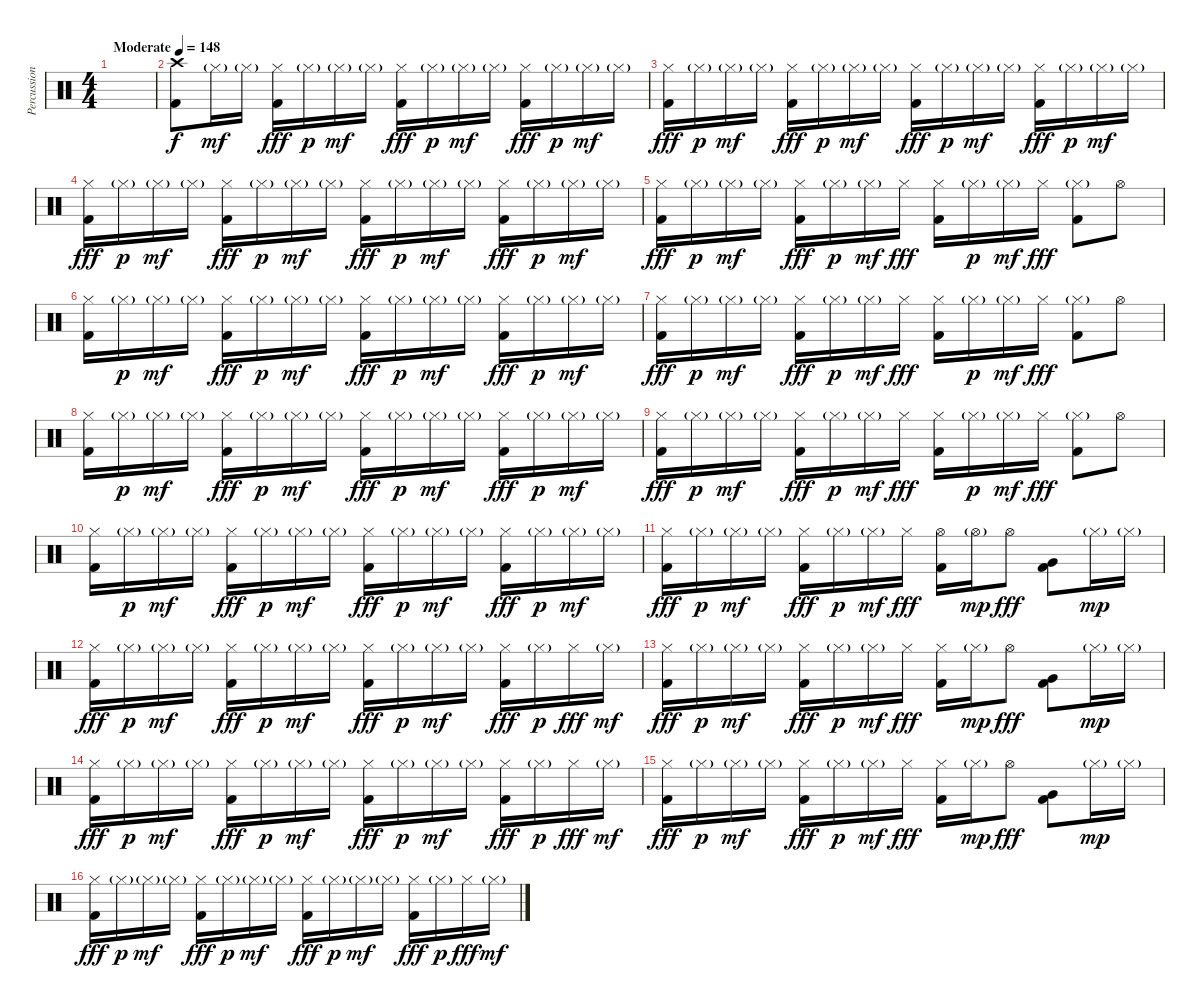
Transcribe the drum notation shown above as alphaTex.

\track ("Percussion" "Percussion") {instrument percussion}
\staff {score}
\articulation defaults
\ts (4 4)
\tempo (148 "Moderate")
\clef neutral
\ks c
|
("Crash high (hit)" "Kick (hit) 2").8 "Hi-Hat (closed)"{g}.16{dy mf} "Hi-Hat (closed)"{g}.16 ("Hi-Hat (closed)" "Kick (hit) 2").16{dy fff} "Hi-Hat (closed)"{g}.16{dy p} "Hi-Hat (closed)"{g}.16{dy mf} "Hi-Hat (closed)"{g}.16 ("Hi-Hat (closed)" "Kick (hit) 2").16{dy fff} "Hi-Hat (closed)"{g}.16{dy p} "Hi-Hat (closed)"{g}.16{dy mf} "Hi-Hat (closed)"{g}.16 ("Hi-Hat (closed)" "Kick (hit) 2").16{dy fff} "Hi-Hat (closed)"{g}.16{dy p} "Hi-Hat (closed)"{g}.16{dy mf} "Hi-Hat (closed)"{g}.16 |
("Hi-Hat (closed)" "Kick (hit) 2").16{dy fff} "Hi-Hat (closed)"{g}.16{dy p} "Hi-Hat (closed)"{g}.16{dy mf} "Hi-Hat (closed)"{g}.16 ("Hi-Hat (closed)" "Kick (hit) 2").16{dy fff} "Hi-Hat (closed)"{g}.16{dy p} "Hi-Hat (closed)"{g}.16{dy mf} "Hi-Hat (closed)"{g}.16 ("Hi-Hat (closed)" "Kick (hit) 2").16{dy fff} "Hi-Hat (closed)"{g}.16{dy p} "Hi-Hat (closed)"{g}.16{dy mf} "Hi-Hat (closed)"{g}.16 ("Hi-Hat (closed)" "Kick (hit) 2").16{dy fff} "Hi-Hat (closed)"{g}.16{dy p} "Hi-Hat (closed)"{g}.16{dy mf} "Hi-Hat (closed)"{g}.16 |
("Hi-Hat (closed)" "Kick (hit) 2").16{dy fff} "Hi-Hat (closed)"{g}.16{dy p} "Hi-Hat (closed)"{g}.16{dy mf} "Hi-Hat (closed)"{g}.16 ("Hi-Hat (closed)" "Kick (hit) 2").16{dy fff} "Hi-Hat (closed)"{g}.16{dy p} "Hi-Hat (closed)"{g}.16{dy mf} "Hi-Hat (closed)"{g}.16 ("Hi-Hat (closed)" "Kick (hit) 2").16{dy fff} "Hi-Hat (closed)"{g}.16{dy p} "Hi-Hat (closed)"{g}.16{dy mf} "Hi-Hat (closed)"{g}.16 ("Hi-Hat (closed)" "Kick (hit) 2").16{dy fff} "Hi-Hat (closed)"{g}.16{dy p} "Hi-Hat (closed)"{g}.16{dy mf} "Hi-Hat (closed)"{g}.16 |
("Hi-Hat (closed)" "Kick (hit) 2").16{dy fff} "Hi-Hat (closed)"{g}.16{dy p} "Hi-Hat (closed)"{g}.16{dy mf} "Hi-Hat (closed)"{g}.16 ("Hi-Hat (closed)" "Kick (hit) 2").16{dy fff} "Hi-Hat (closed)"{g}.16{dy p} "Hi-Hat (closed)"{g}.16{dy mf} "Hi-Hat (closed)".16{dy fff} ("Hi-Hat (closed)" "Kick (hit) 2").16 "Hi-Hat (closed)"{g}.16{dy p} "Hi-Hat (closed)"{g}.16{dy mf} "Hi-Hat (closed)".16{dy fff} ("Hi-Hat (closed)"{g} "Kick (hit) 2").8 "Hi-Hat (open)".8 |
("Hi-Hat (closed)" "Kick (hit) 2").16 "Hi-Hat (closed)"{g}.16{dy p} "Hi-Hat (closed)"{g}.16{dy mf} "Hi-Hat (closed)"{g}.16 ("Hi-Hat (closed)" "Kick (hit) 2").16{dy fff} "Hi-Hat (closed)"{g}.16{dy p} "Hi-Hat (closed)"{g}.16{dy mf} "Hi-Hat (closed)"{g}.16 ("Hi-Hat (closed)" "Kick (hit) 2").16{dy fff} "Hi-Hat (closed)"{g}.16{dy p} "Hi-Hat (closed)"{g}.16{dy mf} "Hi-Hat (closed)"{g}.16 ("Hi-Hat (closed)" "Kick (hit) 2").16{dy fff} "Hi-Hat (closed)"{g}.16{dy p} "Hi-Hat (closed)"{g}.16{dy mf} "Hi-Hat (closed)"{g}.16 |
("Hi-Hat (closed)" "Kick (hit) 2").16{dy fff} "Hi-Hat (closed)"{g}.16{dy p} "Hi-Hat (closed)"{g}.16{dy mf} "Hi-Hat (closed)"{g}.16 ("Hi-Hat (closed)" "Kick (hit) 2").16{dy fff} "Hi-Hat (closed)"{g}.16{dy p} "Hi-Hat (closed)"{g}.16{dy mf} "Hi-Hat (closed)".16{dy fff} ("Hi-Hat (closed)" "Kick (hit) 2").16 "Hi-Hat (closed)"{g}.16{dy p} "Hi-Hat (closed)"{g}.16{dy mf} "Hi-Hat (closed)".16{dy fff} ("Hi-Hat (closed)"{g} "Kick (hit) 2").8 "Hi-Hat (open)".8 |
("Hi-Hat (closed)" "Kick (hit) 2").16 "Hi-Hat (closed)"{g}.16{dy p} "Hi-Hat (closed)"{g}.16{dy mf} "Hi-Hat (closed)"{g}.16 ("Hi-Hat (closed)" "Kick (hit) 2").16{dy fff} "Hi-Hat (closed)"{g}.16{dy p} "Hi-Hat (closed)"{g}.16{dy mf} "Hi-Hat (closed)"{g}.16 ("Hi-Hat (closed)" "Kick (hit) 2").16{dy fff} "Hi-Hat (closed)"{g}.16{dy p} "Hi-Hat (closed)"{g}.16{dy mf} "Hi-Hat (closed)"{g}.16 ("Hi-Hat (closed)" "Kick (hit) 2").16{dy fff} "Hi-Hat (closed)"{g}.16{dy p} "Hi-Hat (closed)"{g}.16{dy mf} "Hi-Hat (closed)"{g}.16 |
("Hi-Hat (closed)" "Kick (hit) 2").16{dy fff} "Hi-Hat (closed)"{g}.16{dy p} "Hi-Hat (closed)"{g}.16{dy mf} "Hi-Hat (closed)"{g}.16 ("Hi-Hat (closed)" "Kick (hit) 2").16{dy fff} "Hi-Hat (closed)"{g}.16{dy p} "Hi-Hat (closed)"{g}.16{dy mf} "Hi-Hat (closed)".16{dy fff} ("Hi-Hat (closed)" "Kick (hit) 2").16 "Hi-Hat (closed)"{g}.16{dy p} "Hi-Hat (closed)"{g}.16{dy mf} "Hi-Hat (closed)".16{dy fff} ("Hi-Hat (closed)"{g} "Kick (hit) 2").8 "Hi-Hat (open)".8 |
("Hi-Hat (closed)" "Kick (hit) 2").16 "Hi-Hat (closed)"{g}.16{dy p} "Hi-Hat (closed)"{g}.16{dy mf} "Hi-Hat (closed)"{g}.16 ("Hi-Hat (closed)" "Kick (hit) 2").16{dy fff} "Hi-Hat (closed)"{g}.16{dy p} "Hi-Hat (closed)"{g}.16{dy mf} "Hi-Hat (closed)"{g}.16 ("Hi-Hat (closed)" "Kick (hit) 2").16{dy fff} "Hi-Hat (closed)"{g}.16{dy p} "Hi-Hat (closed)"{g}.16{dy mf} "Hi-Hat (closed)"{g}.16 ("Hi-Hat (closed)" "Kick (hit) 2").16{dy fff} "Hi-Hat (closed)"{g}.16{dy p} "Hi-Hat (closed)"{g}.16{dy mf} "Hi-Hat (closed)"{g}.16 |
("Hi-Hat (closed)" "Kick (hit) 2").16{dy fff} "Hi-Hat (closed)"{g}.16{dy p} "Hi-Hat (closed)"{g}.16{dy mf} "Hi-Hat (closed)"{g}.16 ("Hi-Hat (closed)" "Kick (hit) 2").16{dy fff} "Hi-Hat (closed)"{g}.16{dy p} "Hi-Hat (closed)"{g}.16{dy mf} "Hi-Hat (closed)".16{dy fff} ("Hi-Hat (open)" "Kick (hit) 2").16 "Hi-Hat (open)"{g}.16{dy mp} "Hi-Hat (open)".8{dy fff} ("Kick (hit) 2" "Very Low Tom (hit)").8 "Hi-Hat (closed)"{g}.16{dy mp} "Hi-Hat (closed)"{g}.16 |
("Hi-Hat (closed)" "Kick (hit) 2").16{dy fff} "Hi-Hat (closed)"{g}.16{dy p} "Hi-Hat (closed)"{g}.16{dy mf} "Hi-Hat (closed)"{g}.16 ("Hi-Hat (closed)" "Kick (hit) 2").16{dy fff} "Hi-Hat (closed)"{g}.16{dy p} "Hi-Hat (closed)"{g}.16{dy mf} "Hi-Hat (closed)"{g}.16 ("Hi-Hat (closed)" "Kick (hit) 2").16{dy fff} "Hi-Hat (closed)"{g}.16{dy p} "Hi-Hat (closed)"{g}.16{dy mf} "Hi-Hat (closed)"{g}.16 ("Hi-Hat (closed)" "Kick (hit) 2").16{dy fff} "Hi-Hat (closed)"{g}.16{dy p} "Hi-Hat (closed)".16{dy fff} "Hi-Hat (closed)"{g}.16{dy mf} |
("Hi-Hat (closed)" "Kick (hit) 2").16{dy fff} "Hi-Hat (closed)"{g}.16{dy p} "Hi-Hat (closed)"{g}.16{dy mf} "Hi-Hat (closed)"{g}.16 ("Hi-Hat (closed)" "Kick (hit) 2").16{dy fff} "Hi-Hat (closed)"{g}.16{dy p} "Hi-Hat (closed)"{g}.16{dy mf} "Hi-Hat (closed)".16{dy fff} ("Hi-Hat (closed)" "Kick (hit) 2").16 "Hi-Hat (closed)"{g}.16{dy mp} "Hi-Hat (open)".8{dy fff} ("Kick (hit) 2" "Very Low Tom (hit)").8 "Hi-Hat (closed)"{g}.16{dy mp} "Hi-Hat (closed)"{g}.16 |
("Hi-Hat (closed)" "Kick (hit) 2").16{dy fff} "Hi-Hat (closed)"{g}.16{dy p} "Hi-Hat (closed)"{g}.16{dy mf} "Hi-Hat (closed)"{g}.16 ("Hi-Hat (closed)" "Kick (hit) 2").16{dy fff} "Hi-Hat (closed)"{g}.16{dy p} "Hi-Hat (closed)"{g}.16{dy mf} "Hi-Hat (closed)"{g}.16 ("Hi-Hat (closed)" "Kick (hit) 2").16{dy fff} "Hi-Hat (closed)"{g}.16{dy p} "Hi-Hat (closed)"{g}.16{dy mf} "Hi-Hat (closed)"{g}.16 ("Hi-Hat (closed)" "Kick (hit) 2").16{dy fff} "Hi-Hat (closed)"{g}.16{dy p} "Hi-Hat (closed)".16{dy fff} "Hi-Hat (closed)"{g}.16{dy mf} |
("Hi-Hat (closed)" "Kick (hit) 2").16{dy fff} "Hi-Hat (closed)"{g}.16{dy p} "Hi-Hat (closed)"{g}.16{dy mf} "Hi-Hat (closed)"{g}.16 ("Hi-Hat (closed)" "Kick (hit) 2").16{dy fff} "Hi-Hat (closed)"{g}.16{dy p} "Hi-Hat (closed)"{g}.16{dy mf} "Hi-Hat (closed)".16{dy fff} ("Hi-Hat (closed)" "Kick (hit) 2").16 "Hi-Hat (closed)"{g}.16{dy mp} "Hi-Hat (open)".8{dy fff} ("Kick (hit) 2" "Very Low Tom (hit)").8 "Hi-Hat (closed)"{g}.16{dy mp} "Hi-Hat (closed)"{g}.16 |
("Hi-Hat (closed)" "Kick (hit) 2").16{dy fff} "Hi-Hat (closed)"{g}.16{dy p} "Hi-Hat (closed)"{g}.16{dy mf} "Hi-Hat (closed)"{g}.16 ("Hi-Hat (closed)" "Kick (hit) 2").16{dy fff} "Hi-Hat (closed)"{g}.16{dy p} "Hi-Hat (closed)"{g}.16{dy mf} "Hi-Hat (closed)"{g}.16 ("Hi-Hat (closed)" "Kick (hit) 2").16{dy fff} "Hi-Hat (closed)"{g}.16{dy p} "Hi-Hat (closed)"{g}.16{dy mf} "Hi-Hat (closed)"{g}.16 ("Hi-Hat (closed)" "Kick (hit) 2").16{dy fff} "Hi-Hat (closed)"{g}.16{dy p} "Hi-Hat (closed)".16{dy fff} "Hi-Hat (closed)"{g}.16{dy mf}
